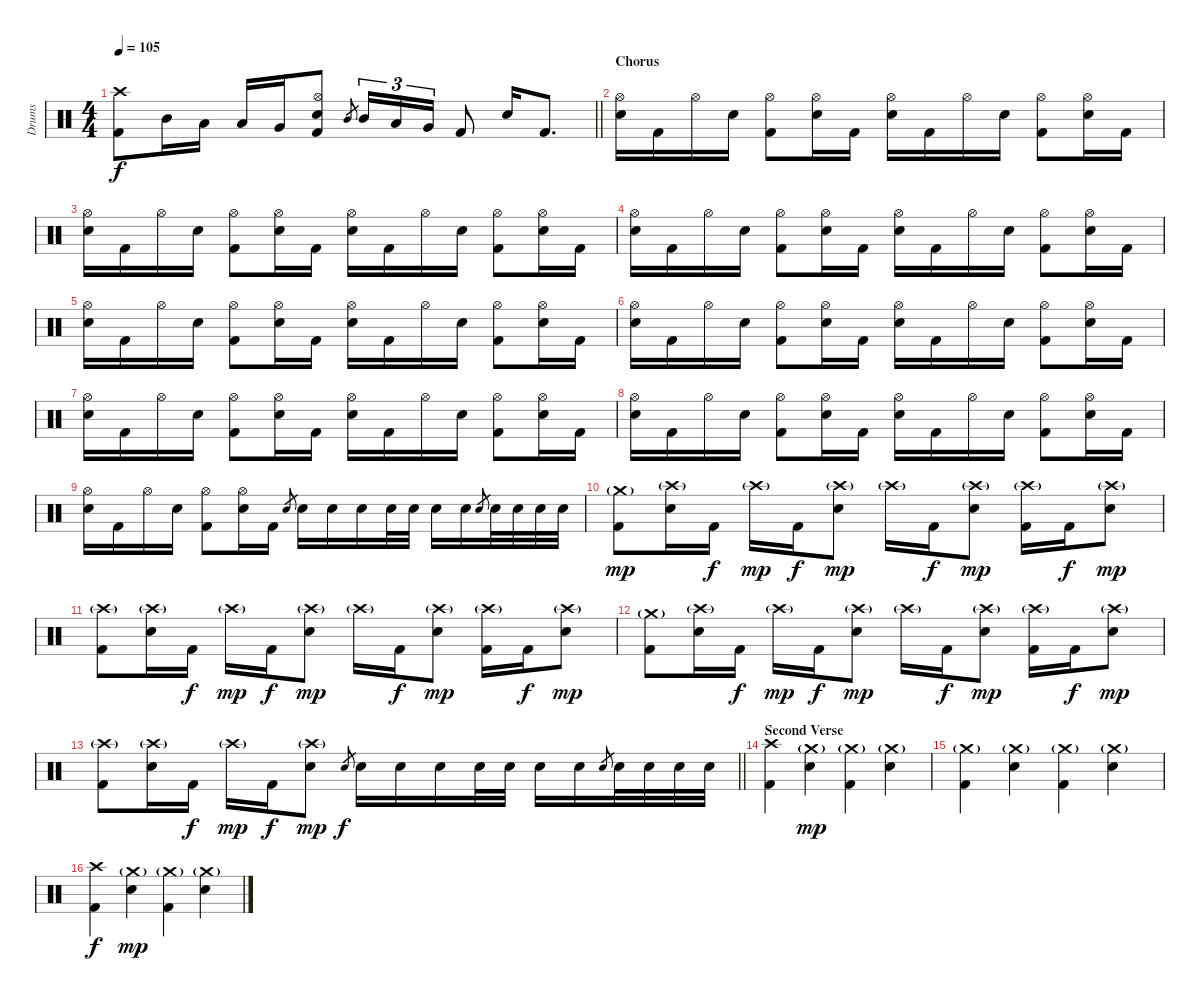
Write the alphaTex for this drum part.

\track ("Drums" "Drums") {instrument percussion}
\staff {score}
\articulation defaults
\ts (4 4)
\tempo 105
\clef neutral
\barLineRight lightlight
\ks c
("Crash high (hit)" "Kick (hit) 2").8{dy f} "Mid Tom (hit)".16 "Low Tom (hit)".16 "Low Tom (hit)".16 "Very Low Tom (hit)".16 ("Hi-Hat (open)" "Snare (hit) 2" "Kick (hit) 2").8 "Mid Tom (hit)".8{gr} "Mid Tom (hit)".16{tu (3 2)} "Low Tom (hit)".16{tu (3 2)} "Very Low Tom (hit)".16{tu (3 2)} "Kick (hit) 2".8 "Snare (hit) 2".16 "Kick (hit) 2".8{d} |
\section ("" "Chorus")
("Hi-Hat (open)" "Snare (hit) 2").16 "Kick (hit) 2".16 "Hi-Hat (open)".16 "Snare (hit) 2".16 ("Hi-Hat (open)" "Kick (hit) 2").8 ("Hi-Hat (open)" "Snare (hit) 2").16 "Kick (hit) 2".16 ("Hi-Hat (open)" "Snare (hit) 2").16 "Kick (hit) 2".16 "Hi-Hat (open)".16 "Snare (hit) 2".16 ("Hi-Hat (open)" "Kick (hit) 2").8 ("Hi-Hat (open)" "Snare (hit) 2").16 "Kick (hit) 2".16 |
("Hi-Hat (open)" "Snare (hit) 2").16 "Kick (hit) 2".16 "Hi-Hat (open)".16 "Snare (hit) 2".16 ("Hi-Hat (open)" "Kick (hit) 2").8 ("Hi-Hat (open)" "Snare (hit) 2").16 "Kick (hit) 2".16 ("Hi-Hat (open)" "Snare (hit) 2").16 "Kick (hit) 2".16 "Hi-Hat (open)".16 "Snare (hit) 2".16 ("Hi-Hat (open)" "Kick (hit) 2").8 ("Hi-Hat (open)" "Snare (hit) 2").16 "Kick (hit) 2".16 |
("Hi-Hat (open)" "Snare (hit) 2").16 "Kick (hit) 2".16 "Hi-Hat (open)".16 "Snare (hit) 2".16 ("Hi-Hat (open)" "Kick (hit) 2").8 ("Hi-Hat (open)" "Snare (hit) 2").16 "Kick (hit) 2".16 ("Hi-Hat (open)" "Snare (hit) 2").16 "Kick (hit) 2".16 "Hi-Hat (open)".16 "Snare (hit) 2".16 ("Hi-Hat (open)" "Kick (hit) 2").8 ("Hi-Hat (open)" "Snare (hit) 2").16 "Kick (hit) 2".16 |
("Hi-Hat (open)" "Snare (hit) 2").16 "Kick (hit) 2".16 "Hi-Hat (open)".16 "Snare (hit) 2".16 ("Hi-Hat (open)" "Kick (hit) 2").8 ("Hi-Hat (open)" "Snare (hit) 2").16 "Kick (hit) 2".16 ("Hi-Hat (open)" "Snare (hit) 2").16 "Kick (hit) 2".16 "Hi-Hat (open)".16 "Snare (hit) 2".16 ("Hi-Hat (open)" "Kick (hit) 2").8 ("Hi-Hat (open)" "Snare (hit) 2").16 "Kick (hit) 2".16 |
("Hi-Hat (open)" "Snare (hit) 2").16 "Kick (hit) 2".16 "Hi-Hat (open)".16 "Snare (hit) 2".16 ("Hi-Hat (open)" "Kick (hit) 2").8 ("Hi-Hat (open)" "Snare (hit) 2").16 "Kick (hit) 2".16 ("Hi-Hat (open)" "Snare (hit) 2").16 "Kick (hit) 2".16 "Hi-Hat (open)".16 "Snare (hit) 2".16 ("Hi-Hat (open)" "Kick (hit) 2").8 ("Hi-Hat (open)" "Snare (hit) 2").16 "Kick (hit) 2".16 |
("Hi-Hat (open)" "Snare (hit) 2").16 "Kick (hit) 2".16 "Hi-Hat (open)".16 "Snare (hit) 2".16 ("Hi-Hat (open)" "Kick (hit) 2").8 ("Hi-Hat (open)" "Snare (hit) 2").16 "Kick (hit) 2".16 ("Hi-Hat (open)" "Snare (hit) 2").16 "Kick (hit) 2".16 "Hi-Hat (open)".16 "Snare (hit) 2".16 ("Hi-Hat (open)" "Kick (hit) 2").8 ("Hi-Hat (open)" "Snare (hit) 2").16 "Kick (hit) 2".16 |
("Hi-Hat (open)" "Snare (hit) 2").16 "Kick (hit) 2".16 "Hi-Hat (open)".16 "Snare (hit) 2".16 ("Hi-Hat (open)" "Kick (hit) 2").8 ("Hi-Hat (open)" "Snare (hit) 2").16 "Kick (hit) 2".16 ("Hi-Hat (open)" "Snare (hit) 2").16 "Kick (hit) 2".16 "Hi-Hat (open)".16 "Snare (hit) 2".16 ("Hi-Hat (open)" "Kick (hit) 2").8 ("Hi-Hat (open)" "Snare (hit) 2").16 "Kick (hit) 2".16 |
("Hi-Hat (open)" "Snare (hit) 2").16 "Kick (hit) 2".16 "Hi-Hat (open)".16 "Snare (hit) 2".16 ("Hi-Hat (open)" "Kick (hit) 2").8 ("Hi-Hat (open)" "Snare (hit) 2").16 "Kick (hit) 2".16 "Snare (hit) 2".8{gr} "Snare (hit) 2".16 "Snare (hit) 2".16 "Snare (hit) 2".16 "Snare (hit) 2".32 "Snare (hit) 2".32 "Snare (hit) 2".16 "Snare (hit) 2".16 "Snare (hit) 2".8{gr} "Snare (hit) 2".32 "Snare (hit) 2".32 "Snare (hit) 2".32 "Snare (hit) 2".32 |
("Crash medium (hit)"{g} "Kick (hit) 2").8{dy mp} ("Crash high (hit)"{g} "Snare (hit) 2").16 "Kick (hit) 2".16{dy f} "Crash high (hit)"{g}.16{dy mp} "Kick (hit) 2".16{dy f} ("Crash high (hit)"{g} "Snare (hit) 2").8{dy mp} "Crash high (hit)"{g}.16 "Kick (hit) 2".16{dy f} ("Crash high (hit)"{g} "Snare (hit) 2").8{dy mp} ("Crash high (hit)"{g} "Kick (hit) 2").16 "Kick (hit) 2".16{dy f} ("Crash high (hit)"{g} "Snare (hit) 2").8{dy mp} |
("Crash high (hit)"{g} "Kick (hit) 2").8 ("Crash high (hit)"{g} "Snare (hit) 2").16 "Kick (hit) 2".16{dy f} "Crash high (hit)"{g}.16{dy mp} "Kick (hit) 2".16{dy f} ("Crash high (hit)"{g} "Snare (hit) 2").8{dy mp} "Crash high (hit)"{g}.16 "Kick (hit) 2".16{dy f} ("Crash high (hit)"{g} "Snare (hit) 2").8{dy mp} ("Crash high (hit)"{g} "Kick (hit) 2").16 "Kick (hit) 2".16{dy f} ("Crash high (hit)"{g} "Snare (hit) 2").8{dy mp} |
("Crash medium (hit)"{g} "Kick (hit) 2").8 ("Crash high (hit)"{g} "Snare (hit) 2").16 "Kick (hit) 2".16{dy f} "Crash high (hit)"{g}.16{dy mp} "Kick (hit) 2".16{dy f} ("Crash high (hit)"{g} "Snare (hit) 2").8{dy mp} "Crash high (hit)"{g}.16 "Kick (hit) 2".16{dy f} ("Crash high (hit)"{g} "Snare (hit) 2").8{dy mp} ("Crash high (hit)"{g} "Kick (hit) 2").16 "Kick (hit) 2".16{dy f} ("Crash high (hit)"{g} "Snare (hit) 2").8{dy mp} |
\barLineRight lightlight
("Crash high (hit)"{g} "Kick (hit) 2").8 ("Crash high (hit)"{g} "Snare (hit) 2").16 "Kick (hit) 2".16{dy f} "Crash high (hit)"{g}.16{dy mp} "Kick (hit) 2".16{dy f} ("Crash high (hit)"{g} "Snare (hit) 2").8{dy mp} "Snare (hit) 2".8{gr dy f} "Snare (hit) 2".16 "Snare (hit) 2".16 "Snare (hit) 2".16 "Snare (hit) 2".32 "Snare (hit) 2".32 "Snare (hit) 2".16 "Snare (hit) 2".16 "Snare (hit) 2".8{gr} "Snare (hit) 2".32 "Snare (hit) 2".32 "Snare (hit) 2".32 "Snare (hit) 2".32 |
\section ("" "Second Verse")
("Crash high (hit)" "Kick (hit) 2").4 ("Crash medium (hit)"{g} "Snare (hit) 2").4{dy mp} ("Crash medium (hit)"{g} "Kick (hit) 2").4 ("Crash medium (hit)"{g} "Snare (hit) 2").4 |
("Crash medium (hit)"{g} "Kick (hit) 2").4 ("Crash medium (hit)"{g} "Snare (hit) 2").4 ("Crash medium (hit)"{g} "Kick (hit) 2").4 ("Crash medium (hit)"{g} "Snare (hit) 2").4 |
("Crash high (hit)" "Kick (hit) 2").4{dy f} ("Crash medium (hit)"{g} "Snare (hit) 2").4{dy mp} ("Crash medium (hit)"{g} "Kick (hit) 2").4 ("Crash medium (hit)"{g} "Snare (hit) 2").4
